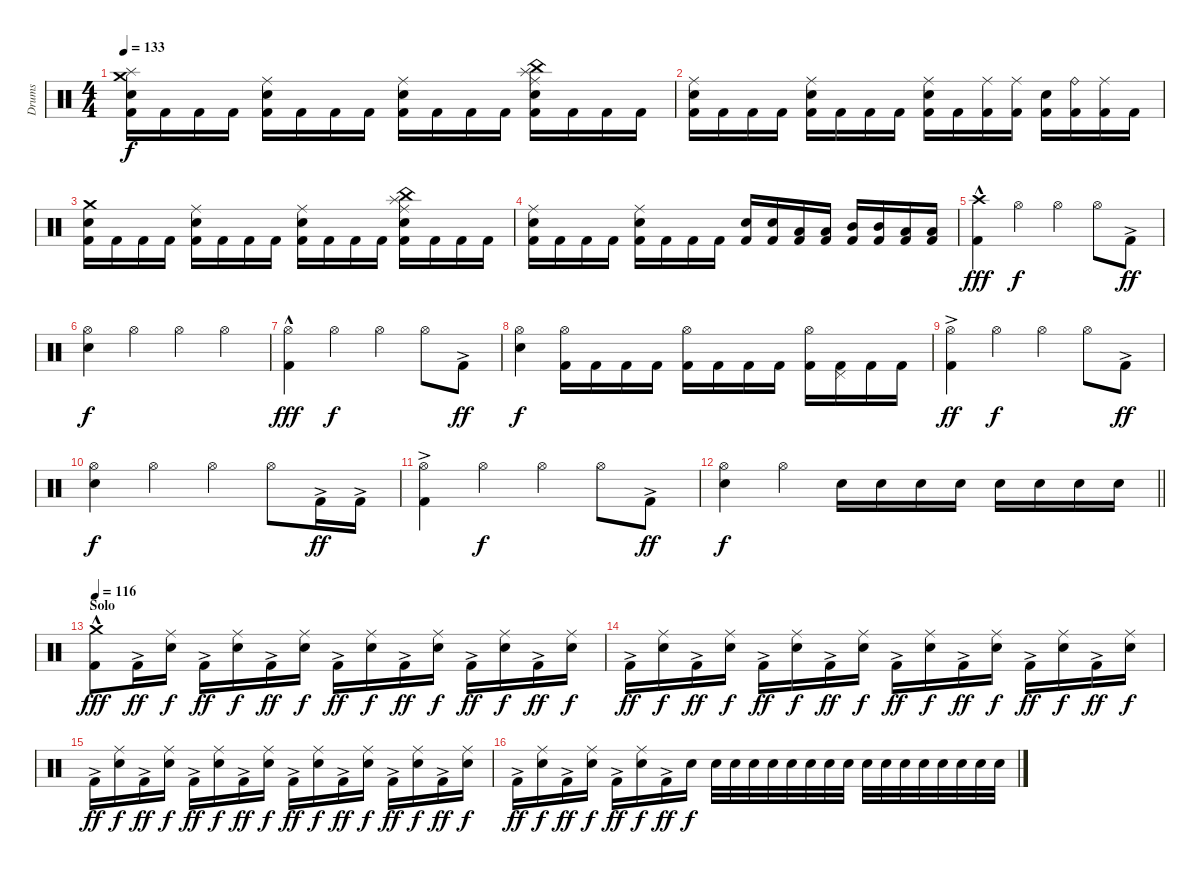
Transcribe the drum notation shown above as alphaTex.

\track ("Drums" "Drums") {instrument percussion}
\staff {score}
\articulation defaults
\ts (4 4)
\tempo 133
\clef neutral
\ks c
("Crash medium (hit)" "Splash (hit)" "Electric Snare (hit)" "Kick (hit) 2").16{dy f} "Kick (hit) 2".16 "Kick (hit) 2".16 "Kick (hit) 2".16 ("Electric Snare (hit)" "Ride (middle)" "Kick (hit) 2").16 "Kick (hit) 2".16 "Kick (hit) 2".16 "Kick (hit) 2".16 ("Electric Snare (hit)" "Ride (middle)" "Kick (hit) 2").16 "Kick (hit) 2".16 "Kick (hit) 2".16 "Kick (hit) 2".16 ("Splash (hit)" "China (hit)" "Electric Snare (hit)" "Ride (middle)" "Kick (hit) 2").16 "Kick (hit) 2".16 "Kick (hit) 2".16 "Kick (hit) 2".16 |
("Electric Snare (hit)" "Ride (middle)" "Kick (hit) 2").16 "Kick (hit) 2".16 "Kick (hit) 2".16 "Kick (hit) 2".16 ("Electric Snare (hit)" "Ride (middle)" "Kick (hit) 2").16 "Kick (hit) 2".16 "Kick (hit) 2".16 "Kick (hit) 2".16 ("Electric Snare (hit)" "Ride (middle)" "Kick (hit) 2").16 "Kick (hit) 2".16 ("Ride (middle)" "Kick (hit) 2").16 ("Ride (middle)" "Kick (hit) 2").16 ("Electric Snare (hit)" "Kick (hit) 2").16 ("Ride (bell)" "Kick (hit) 2").16 ("Ride (middle)" "Kick (hit) 2").16 "Kick (hit) 2".16 |
("Crash medium (hit)" "Electric Snare (hit)" "Kick (hit) 2").16 "Kick (hit) 2".16 "Kick (hit) 2".16 "Kick (hit) 2".16 ("Electric Snare (hit)" "Ride (middle)" "Kick (hit) 2").16 "Kick (hit) 2".16 "Kick (hit) 2".16 "Kick (hit) 2".16 ("Electric Snare (hit)" "Ride (middle)" "Kick (hit) 2").16 "Kick (hit) 2".16 "Kick (hit) 2".16 "Kick (hit) 2".16 ("Splash (hit)" "China (hit)" "Electric Snare (hit)" "Ride (middle)" "Kick (hit) 2").16 "Kick (hit) 2".16 "Kick (hit) 2".16 "Kick (hit) 2".16 |
("Electric Snare (hit)" "Ride (middle)" "Kick (hit) 2").16 "Kick (hit) 2".16 "Kick (hit) 2".16 "Kick (hit) 2".16 ("Electric Snare (hit)" "Ride (middle)" "Kick (hit) 2").16 "Kick (hit) 2".16 "Kick (hit) 2".16 "Kick (hit) 2".16 ("Electric Snare (hit)" "Kick (hit) 2").16 ("Electric Snare (hit)" "Kick (hit) 2").16 ("Low Tom (hit)" "Kick (hit) 2").16 ("Low Tom (hit)" "Kick (hit) 2").16 ("Mid Tom (hit)" "Kick (hit) 2").16 ("Mid Tom (hit)" "Kick (hit) 2").16 ("Low Tom (hit)" "Kick (hit) 2").16 ("Low Tom (hit)" "Kick (hit) 2").16 |
("Crash high (hit)" "Kick (hit) 2"{hac}).4{dy fff} "Hi-Hat (open)".4{dy f} "Hi-Hat (open)".4 "Hi-Hat (open)".8 "Kick (hit) 2"{ac}.8{dy ff} |
("Electric Snare (hit)" "Hi-Hat (open)").4{dy f} "Hi-Hat (open)".4 "Hi-Hat (open)".4 "Hi-Hat (open)".4 |
("Hi-Hat (open)" "Kick (hit) 2"{hac}).4{dy fff} "Hi-Hat (open)".4{dy f} "Hi-Hat (open)".4 "Hi-Hat (open)".8 "Kick (hit) 2"{ac}.8{dy ff} |
("Electric Snare (hit)" "Hi-Hat (open)").4{dy f} ("Hi-Hat (open)" "Kick (hit) 2").16 "Kick (hit) 2".16 "Kick (hit) 2".16 "Kick (hit) 2".16 ("Hi-Hat (open)" "Kick (hit) 2").16 "Kick (hit) 2".16 "Kick (hit) 2".16 "Kick (hit) 2".16 ("Hi-Hat (open)" "Kick (hit) 2").16 ("Pedal Hi-Hat (hit)" "Kick (hit) 2").16 "Kick (hit) 2".16 "Kick (hit) 2".16 |
("Hi-Hat (open)" "Kick (hit) 2"{ac}).4{dy ff} "Hi-Hat (open)".4{dy f} "Hi-Hat (open)".4 "Hi-Hat (open)".8 "Kick (hit) 2"{ac}.8{dy ff} |
("Electric Snare (hit)" "Hi-Hat (open)").4{dy f} "Hi-Hat (open)".4 "Hi-Hat (open)".4 "Hi-Hat (open)".8 "Kick (hit) 2"{ac}.16{dy ff} "Kick (hit) 2"{ac}.16 |
("Hi-Hat (open)" "Kick (hit) 2"{ac}).4 "Hi-Hat (open)".4{dy f} "Hi-Hat (open)".4 "Hi-Hat (open)".8 "Kick (hit) 2"{ac}.8{dy ff} |
\barLineRight lightlight
("Electric Snare (hit)" "Hi-Hat (open)").4{dy f} "Hi-Hat (open)".4 "Electric Snare (hit)".16 "Electric Snare (hit)".16 "Electric Snare (hit)".16 "Electric Snare (hit)".16 "Electric Snare (hit)".16 "Electric Snare (hit)".16 "Electric Snare (hit)".16 "Electric Snare (hit)".16 |
\section ("" "Solo")
\tempo 116
("Crash medium (hit)" "Kick (hit) 2"{hac}).8{dy fff} "Kick (hit) 2"{ac}.16{dy ff} ("Electric Snare (hit)" "Ride (middle)").16{dy f} "Kick (hit) 2"{ac}.16{dy ff} ("Electric Snare (hit)" "Ride (middle)").16{dy f} "Kick (hit) 2"{ac}.16{dy ff} ("Electric Snare (hit)" "Ride (middle)").16{dy f} "Kick (hit) 2"{ac}.16{dy ff} ("Electric Snare (hit)" "Ride (middle)").16{dy f} "Kick (hit) 2"{ac}.16{dy ff} ("Electric Snare (hit)" "Ride (middle)").16{dy f} "Kick (hit) 2"{ac}.16{dy ff} ("Electric Snare (hit)" "Ride (middle)").16{dy f} "Kick (hit) 2"{ac}.16{dy ff} ("Electric Snare (hit)" "Ride (middle)").16{dy f} |
"Kick (hit) 2"{ac}.16{dy ff} ("Electric Snare (hit)" "Ride (middle)").16{dy f} "Kick (hit) 2"{ac}.16{dy ff} ("Electric Snare (hit)" "Ride (middle)").16{dy f} "Kick (hit) 2"{ac}.16{dy ff} ("Electric Snare (hit)" "Ride (middle)").16{dy f} "Kick (hit) 2"{ac}.16{dy ff} ("Electric Snare (hit)" "Ride (middle)").16{dy f} "Kick (hit) 2"{ac}.16{dy ff} ("Electric Snare (hit)" "Ride (middle)").16{dy f} "Kick (hit) 2"{ac}.16{dy ff} ("Electric Snare (hit)" "Ride (middle)").16{dy f} "Kick (hit) 2"{ac}.16{dy ff} ("Electric Snare (hit)" "Ride (middle)").16{dy f} "Kick (hit) 2"{ac}.16{dy ff} ("Electric Snare (hit)" "Ride (middle)").16{dy f} |
"Kick (hit) 2"{ac}.16{dy ff} ("Electric Snare (hit)" "Ride (middle)").16{dy f} "Kick (hit) 2"{ac}.16{dy ff} ("Electric Snare (hit)" "Ride (middle)").16{dy f} "Kick (hit) 2"{ac}.16{dy ff} ("Electric Snare (hit)" "Ride (middle)").16{dy f} "Kick (hit) 2"{ac}.16{dy ff} ("Electric Snare (hit)" "Ride (middle)").16{dy f} "Kick (hit) 2"{ac}.16{dy ff} ("Electric Snare (hit)" "Ride (middle)").16{dy f} "Kick (hit) 2"{ac}.16{dy ff} ("Electric Snare (hit)" "Ride (middle)").16{dy f} "Kick (hit) 2"{ac}.16{dy ff} ("Electric Snare (hit)" "Ride (middle)").16{dy f} "Kick (hit) 2"{ac}.16{dy ff} ("Electric Snare (hit)" "Ride (middle)").16{dy f} |
"Kick (hit) 2"{ac}.16{dy ff} ("Electric Snare (hit)" "Ride (middle)").16{dy f} "Kick (hit) 2"{ac}.16{dy ff} ("Electric Snare (hit)" "Ride (middle)").16{dy f} "Kick (hit) 2"{ac}.16{dy ff} ("Electric Snare (hit)" "Ride (middle)").16{dy f} "Kick (hit) 2"{ac}.16{dy ff} "Electric Snare (hit)".16{dy f} "Electric Snare (hit)".32 "Electric Snare (hit)".32 "Electric Snare (hit)".32 "Electric Snare (hit)".32 "Electric Snare (hit)".32 "Electric Snare (hit)".32 "Electric Snare (hit)".32 "Electric Snare (hit)".32 "Electric Snare (hit)".32 "Electric Snare (hit)".32 "Electric Snare (hit)".32 "Electric Snare (hit)".32 "Electric Snare (hit)".32 "Electric Snare (hit)".32 "Electric Snare (hit)".32 "Electric Snare (hit)".32
